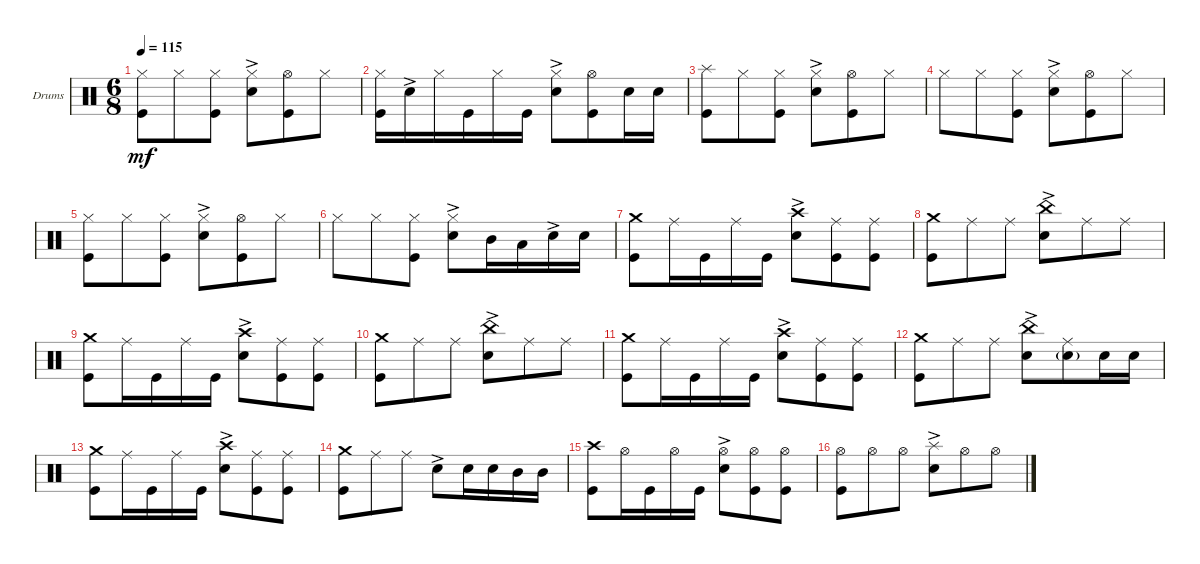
\bracketExtendMode groupsimilarinstruments
\firstSystemTrackNameOrientation horizontal
\otherSystemsTrackNameOrientation horizontal
\track ("Drumkit" "Drums") {instrument percussion}
\staff {score}
\articulation defaults
\ts (6 8)
\tempo 115
\clef neutral
\ks c
("Kick (hit)" "Hi-Hat (closed)").8{dy mf} "Hi-Hat (closed)".8 ("Kick (hit)" "Hi-Hat (closed)").8 ("Snare (hit) 2"{ac} "Hi-Hat (closed)").8 ("Kick (hit)" "Hi-Hat (open)").8 "Hi-Hat (closed)".8 |
("Kick (hit)" "Hi-Hat (closed)").16 "Snare (hit) 2"{ac}.16 "Hi-Hat (closed)".16 "Kick (hit)".16 "Hi-Hat (closed)".16 "Kick (hit)".16 ("Snare (hit) 2"{ac} "Hi-Hat (closed)").8 ("Kick (hit)" "Hi-Hat (open)").8 "Snare (hit) 2".16 "Snare (hit) 2".16 |
("Kick (hit)" "Splash (hit)").8 "Hi-Hat (closed)".8 ("Kick (hit)" "Hi-Hat (closed)").8 ("Snare (hit) 2"{ac} "Hi-Hat (closed)").8 ("Kick (hit)" "Hi-Hat (open)").8 "Hi-Hat (closed)".8 |
"Hi-Hat (closed)".8 "Hi-Hat (closed)".8 ("Hi-Hat (closed)" "Kick (hit)").8 ("Hi-Hat (closed)" "Snare (hit) 2"{ac}).8 ("Kick (hit)" "Hi-Hat (open)").8 "Hi-Hat (closed)".8 |
("Kick (hit)" "Hi-Hat (closed)").8 "Hi-Hat (closed)".8 ("Kick (hit)" "Hi-Hat (closed)").8 ("Snare (hit) 2"{ac} "Hi-Hat (closed)").8 ("Kick (hit)" "Hi-Hat (open)").8 "Hi-Hat (closed)".8 |
"Hi-Hat (closed)".8 "Hi-Hat (closed)".8 ("Hi-Hat (closed)" "Kick (hit)").8 ("Hi-Hat (closed)" "Snare (hit) 2"{ac}).8 "Mid Tom (hit)".16 "Low Tom (hit)".16 "Snare (hit) 2"{ac}.16 "Snare (hit) 2".16 |
("Kick (hit)" "Crash medium (hit)").8 "Ride (middle)".16 "Kick (hit)".16 "Ride (middle)".16 "Kick (hit)".16 ("Snare (hit) 2"{ac} "Crash high (hit)").8 ("Ride (middle)" "Kick (hit)").8 ("Ride (middle)" "Kick (hit)").8 |
("Crash medium (hit)" "Kick (hit)").8 "Ride (middle)".8 "Ride (middle)".8 ("Snare (hit) 2"{ac} "China (hit)").8 "Ride (middle)".8 "Ride (middle)".8 |
("Kick (hit)" "Crash medium (hit)").8 "Ride (middle)".16 "Kick (hit)".16 "Ride (middle)".16 "Kick (hit)".16 ("Snare (hit) 2"{ac} "Crash high (hit)").8 ("Ride (middle)" "Kick (hit)").8 ("Ride (middle)" "Kick (hit)").8 |
("Crash medium (hit)" "Kick (hit)").8 "Ride (middle)".8 "Ride (middle)".8 ("Snare (hit) 2"{ac} "China (hit)").8 "Ride (middle)".8 "Ride (middle)".8 |
("Kick (hit)" "Crash medium (hit)").8 "Ride (middle)".16 "Kick (hit)".16 "Ride (middle)".16 "Kick (hit)".16 ("Snare (hit) 2"{ac} "Crash high (hit)").8 ("Ride (middle)" "Kick (hit)").8 ("Ride (middle)" "Kick (hit)").8 |
("Crash medium (hit)" "Kick (hit)").8 "Ride (middle)".8 "Ride (middle)".8 ("Snare (hit) 2"{ac} "China (hit)").8 ("Ride (middle)" "Snare (hit) 2"{g}).8 "Snare (hit) 2".16 "Snare (hit) 2".16 |
("Kick (hit)" "Crash medium (hit)").8 "Ride (middle)".16 "Kick (hit)".16 "Ride (middle)".16 "Kick (hit)".16 ("Snare (hit) 2"{ac} "Crash high (hit)").8 ("Ride (middle)" "Kick (hit)").8 ("Ride (middle)" "Kick (hit)").8 |
("Crash medium (hit)" "Kick (hit)").8 "Ride (middle)".8 "Ride (middle)".8 "Snare (hit) 2"{ac}.8 "Snare (hit) 2".16 "Snare (hit) 2".16 "Mid Tom (hit)".16 "Mid Tom (hit)".16 |
("Kick (hit)" "Crash high (hit)").8 "Hi-Hat (open)".16 "Kick (hit)".16 "Hi-Hat (open)".16 "Kick (hit)".16 ("Snare (hit) 2"{ac} "Hi-Hat (open)").8 ("Kick (hit)" "Hi-Hat (open)").8 ("Kick (hit)" "Hi-Hat (open)").8 |
("Kick (hit)" "Hi-Hat (open)").8 "Hi-Hat (open)".8 "Hi-Hat (open)".8 ("Snare (hit) 2"{ac} "Splash (hit)").8 "Hi-Hat (open)".8 "Hi-Hat (open)".8
